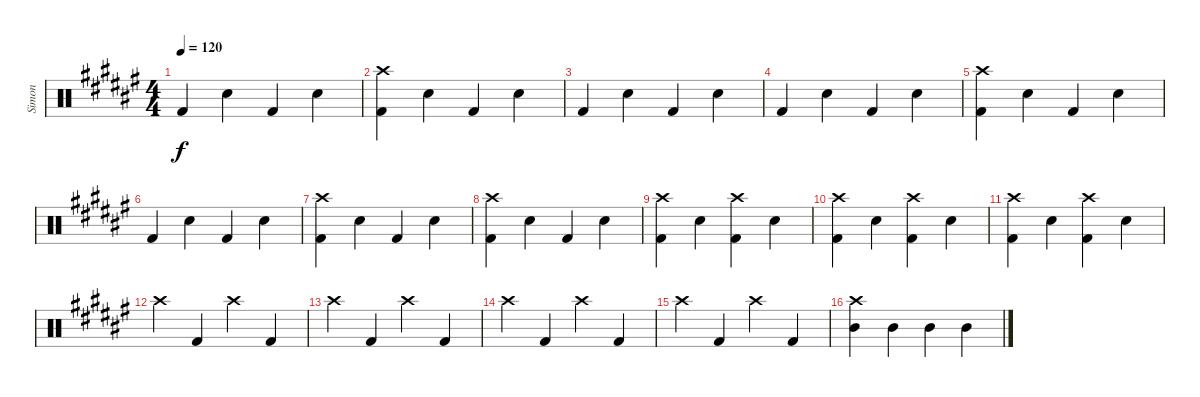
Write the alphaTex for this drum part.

\track ("Simon" "Simon") {instrument percussion}
\staff {score}
\articulation defaults
\ts (4 4)
\tempo 120
\clef neutral
\ks f# "Kick (hit) 2".4{dy f} "Snare (hit) 2".4 "Kick (hit) 2".4 "Snare (hit) 2".4
|
("Kick (hit) 2" "Crash high (hit)").4 "Snare (hit) 2".4 "Kick (hit) 2".4 "Snare (hit) 2".4 |
"Kick (hit) 2".4 "Snare (hit) 2".4 "Kick (hit) 2".4 "Snare (hit) 2".4 |
"Kick (hit) 2".4 "Snare (hit) 2".4 "Kick (hit) 2".4 "Snare (hit) 2".4 |
("Kick (hit) 2" "Crash high (hit)").4 "Snare (hit) 2".4 "Kick (hit) 2".4 "Snare (hit) 2".4 |
"Kick (hit) 2".4 "Snare (hit) 2".4 "Kick (hit) 2".4 "Snare (hit) 2".4 |
("Kick (hit) 2" "Crash high (hit)").4 "Snare (hit) 2".4 "Kick (hit) 2".4 "Snare (hit) 2".4 |
("Kick (hit) 2" "Crash high (hit)").4 "Snare (hit) 2".4 "Kick (hit) 2".4 "Snare (hit) 2".4 |
("Kick (hit) 2" "Crash high (hit)").4 "Snare (hit) 2".4 ("Kick (hit) 2" "Crash high (hit)").4 "Snare (hit) 2".4 |
("Kick (hit) 2" "Crash high (hit)").4 "Snare (hit) 2".4 ("Kick (hit) 2" "Crash high (hit)").4 "Snare (hit) 2".4 |
("Kick (hit) 2" "Crash high (hit)").4 "Snare (hit) 2".4 ("Kick (hit) 2" "Crash high (hit)").4 "Snare (hit) 2".4 |
"Crash high (hit)".4 "Kick (hit) 2".4 "Crash high (hit)".4 "Kick (hit) 2".4 |
"Crash high (hit)".4 "Kick (hit) 2".4 "Crash high (hit)".4 "Kick (hit) 2".4 |
"Crash high (hit)".4 "Kick (hit) 2".4 "Crash high (hit)".4 "Kick (hit) 2".4 |
"Crash high (hit)".4 "Kick (hit) 2".4 "Crash high (hit)".4 "Kick (hit) 2".4 |
("Mid Tom (hit)" "Crash high (hit)").4 "Mid Tom (hit)".4 "Mid Tom (hit)".4 "Mid Tom (hit)".4
